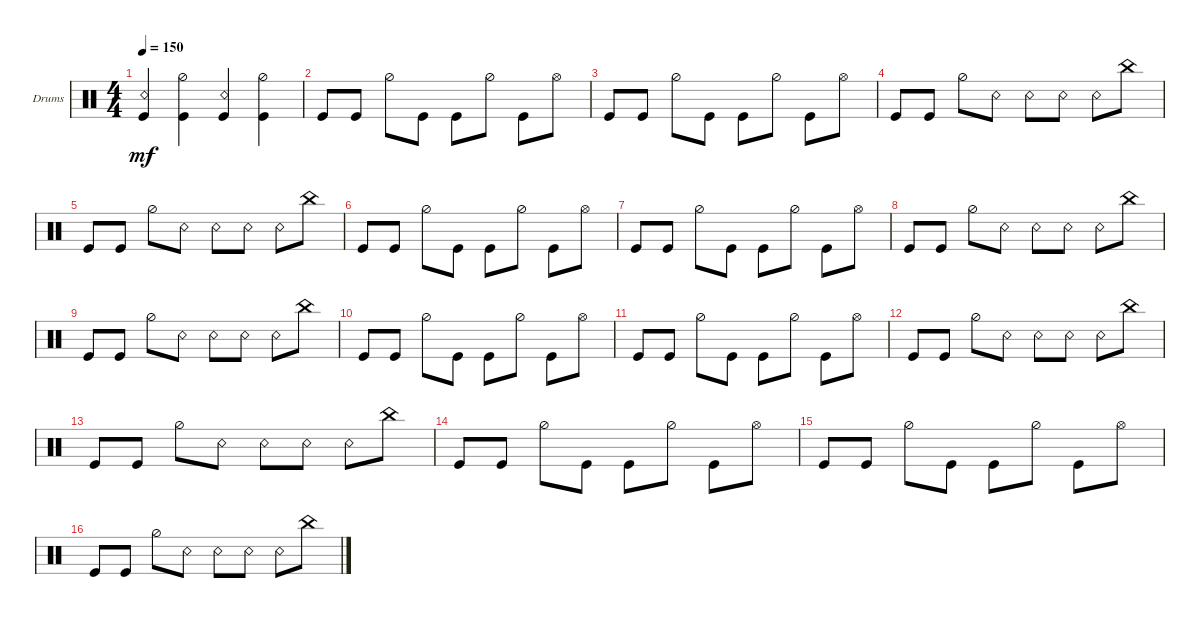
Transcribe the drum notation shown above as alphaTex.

\bracketExtendMode groupsimilarinstruments
\firstSystemTrackNameOrientation horizontal
\otherSystemsTrackNameOrientation horizontal
\track ("Drumkit" "Drums") {instrument percussion}
\staff {score}
\articulation defaults
\ts (4 4)
\tempo 150
\clef neutral
\ks c
("Kick (hit)" "Snare (rim shot)").4{dy mf} ("Kick (hit)" "Hi-Hat (half)").4 ("Kick (hit)" "Snare (rim shot)").4 ("Kick (hit)" "Hi-Hat (half)").4 |
"Kick (hit)".8 "Kick (hit)".8 "Hi-Hat (half)".8 "Kick (hit)".8 "Kick (hit)".8 "Hi-Hat (half)".8 "Kick (hit)".8 "Hi-Hat (open)".8 |
"Kick (hit)".8 "Kick (hit)".8 "Hi-Hat (half)".8 "Kick (hit)".8 "Kick (hit)".8 "Hi-Hat (half)".8 "Kick (hit)".8 "Hi-Hat (open)".8 |
"Kick (hit)".8 "Kick (hit)".8 "Hi-Hat (half)".8 "Snare (rim shot)".8 "Snare (rim shot)".8 "Snare (rim shot)".8 "Snare (rim shot)".8 "China (hit)".8 |
"Kick (hit)".8 "Kick (hit)".8 "Hi-Hat (half)".8 "Snare (rim shot)".8 "Snare (rim shot)".8 "Snare (rim shot)".8 "Snare (rim shot)".8 "China (hit)".8 |
"Kick (hit)".8 "Kick (hit)".8 "Hi-Hat (half)".8 "Kick (hit)".8 "Kick (hit)".8 "Hi-Hat (half)".8 "Kick (hit)".8 "Hi-Hat (open)".8 |
"Kick (hit)".8 "Kick (hit)".8 "Hi-Hat (half)".8 "Kick (hit)".8 "Kick (hit)".8 "Hi-Hat (half)".8 "Kick (hit)".8 "Hi-Hat (open)".8 |
"Kick (hit)".8 "Kick (hit)".8 "Hi-Hat (half)".8 "Snare (rim shot)".8 "Snare (rim shot)".8 "Snare (rim shot)".8 "Snare (rim shot)".8 "China (hit)".8 |
"Kick (hit)".8 "Kick (hit)".8 "Hi-Hat (half)".8 "Snare (rim shot)".8 "Snare (rim shot)".8 "Snare (rim shot)".8 "Snare (rim shot)".8 "China (hit)".8 |
"Kick (hit)".8 "Kick (hit)".8 "Hi-Hat (half)".8 "Kick (hit)".8 "Kick (hit)".8 "Hi-Hat (half)".8 "Kick (hit)".8 "Hi-Hat (open)".8 |
"Kick (hit)".8 "Kick (hit)".8 "Hi-Hat (half)".8 "Kick (hit)".8 "Kick (hit)".8 "Hi-Hat (half)".8 "Kick (hit)".8 "Hi-Hat (open)".8 |
"Kick (hit)".8 "Kick (hit)".8 "Hi-Hat (half)".8 "Snare (rim shot)".8 "Snare (rim shot)".8 "Snare (rim shot)".8 "Snare (rim shot)".8 "China (hit)".8 |
"Kick (hit)".8 "Kick (hit)".8 "Hi-Hat (half)".8 "Snare (rim shot)".8 "Snare (rim shot)".8 "Snare (rim shot)".8 "Snare (rim shot)".8 "China (hit)".8 |
"Kick (hit)".8 "Kick (hit)".8 "Hi-Hat (half)".8 "Kick (hit)".8 "Kick (hit)".8 "Hi-Hat (half)".8 "Kick (hit)".8 "Hi-Hat (open)".8 |
"Kick (hit)".8 "Kick (hit)".8 "Hi-Hat (half)".8 "Kick (hit)".8 "Kick (hit)".8 "Hi-Hat (half)".8 "Kick (hit)".8 "Hi-Hat (open)".8 |
"Kick (hit)".8 "Kick (hit)".8 "Hi-Hat (half)".8 "Snare (rim shot)".8 "Snare (rim shot)".8 "Snare (rim shot)".8 "Snare (rim shot)".8 "China (hit)".8
